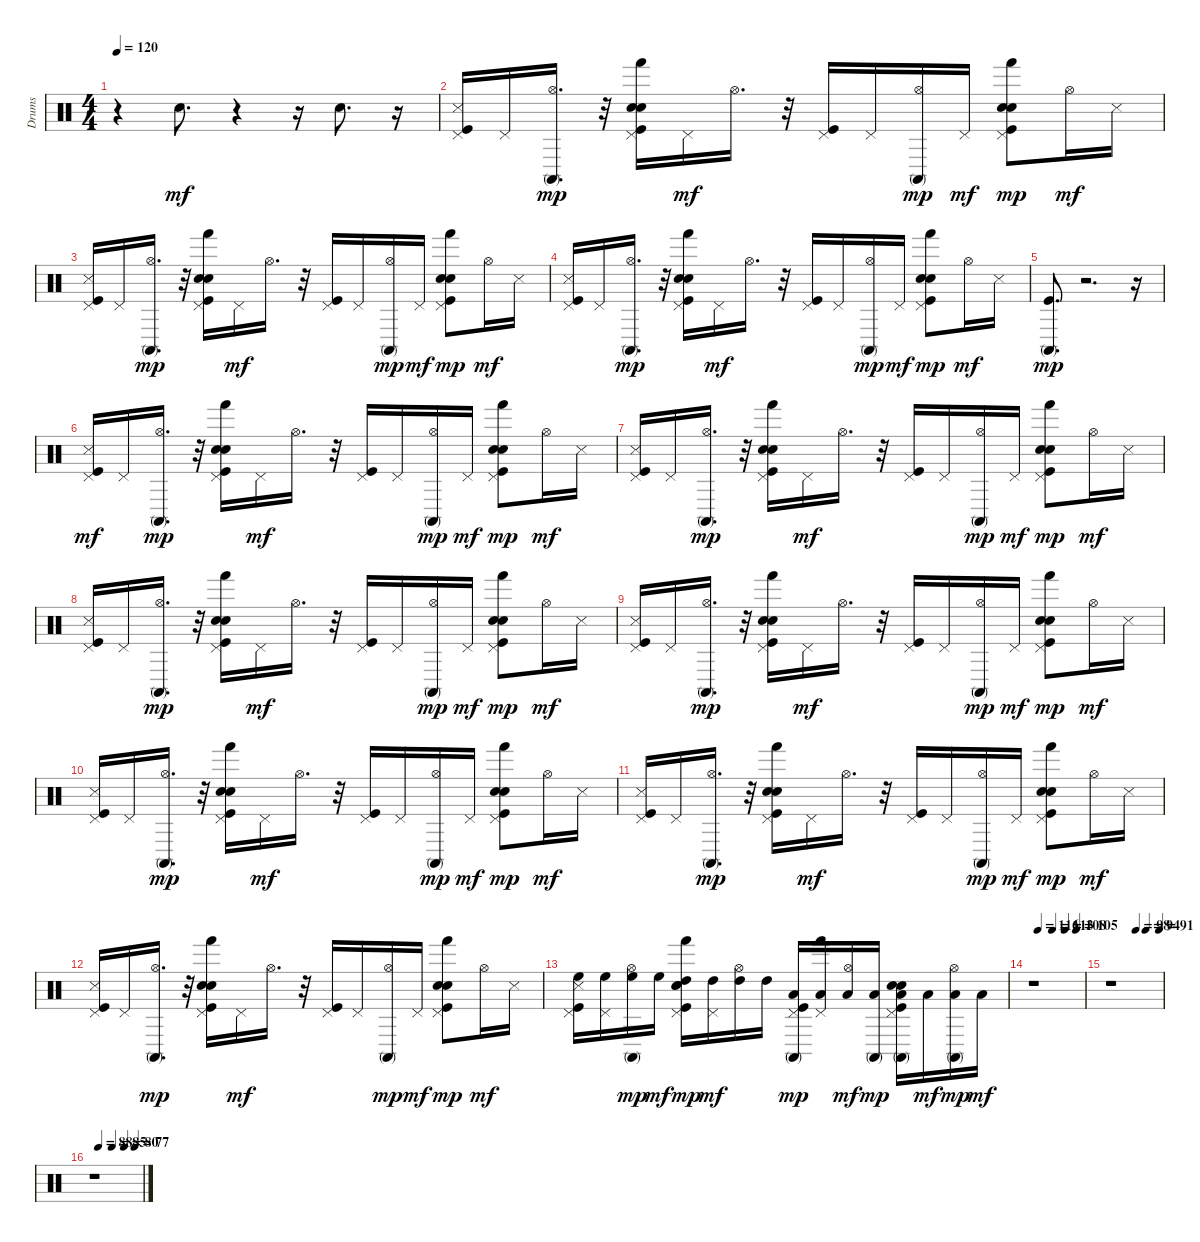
\track ("Drums" "Drums") {instrument percussion}
\staff {score}
\articulation defaults
\ts (4 4)
\tempo 120
\clef neutral
\ks c
r.4{dy mf} "Hand Clap (hit)".8{d} r.4 r.16 "Hand Clap (hit)".8{d} r.16 |
("Pedal Hi-Hat (hit)" "Snare (side stick) 3" "Kick (hit)").16 "Pedal Hi-Hat (hit)".16 ("Hi-Hat (open)" "Conga high (mute)").16{d dy mp} r.32 ("Pedal Hi-Hat (hit)" "Hand Clap (hit)" "Snare (hit) 2" "Kick (hit)" "Hand (hit)").16 "Pedal Hi-Hat (hit)".16{dy mf} "Hi-Hat (open)".16{d} r.32 ("Pedal Hi-Hat (hit)" "Kick (hit)").16 "Pedal Hi-Hat (hit)".16 ("Hi-Hat (open)" "Conga high (mute)").16{dy mp} "Pedal Hi-Hat (hit)".16{dy mf} ("Pedal Hi-Hat (hit)" "Hand Clap (hit)" "Snare (hit) 2" "Kick (hit)" "Hand (hit)").8{dy mp} "Hi-Hat (open)".16{dy mf} "Snare (side stick) 3".16 |
("Kick (hit)" "Pedal Hi-Hat (hit)" "Snare (side stick) 3").16 "Pedal Hi-Hat (hit)".16 ("Hi-Hat (open)" "Conga high (mute)").16{d dy mp} r.32 ("Pedal Hi-Hat (hit)" "Hand Clap (hit)" "Snare (hit) 2" "Kick (hit)" "Hand (hit)").16 "Pedal Hi-Hat (hit)".16{dy mf} "Hi-Hat (open)".16{d} r.32 ("Pedal Hi-Hat (hit)" "Kick (hit)").16 "Pedal Hi-Hat (hit)".16 ("Hi-Hat (open)" "Conga high (mute)").16{dy mp} "Pedal Hi-Hat (hit)".16{dy mf} ("Pedal Hi-Hat (hit)" "Hand Clap (hit)" "Snare (hit) 2" "Kick (hit)" "Hand (hit)").8{dy mp} "Hi-Hat (open)".16{dy mf} "Snare (side stick) 3".16 |
("Pedal Hi-Hat (hit)" "Snare (side stick) 3" "Kick (hit)").16 "Pedal Hi-Hat (hit)".16 ("Hi-Hat (open)" "Conga high (mute)").16{d dy mp} r.32 ("Pedal Hi-Hat (hit)" "Hand Clap (hit)" "Snare (hit) 2" "Kick (hit)" "Hand (hit)").16 "Pedal Hi-Hat (hit)".16{dy mf} "Hi-Hat (open)".16{d} r.32 ("Pedal Hi-Hat (hit)" "Kick (hit)").16 "Pedal Hi-Hat (hit)".16 ("Hi-Hat (open)" "Conga high (mute)").16{dy mp} "Pedal Hi-Hat (hit)".16{dy mf} ("Pedal Hi-Hat (hit)" "Hand Clap (hit)" "Snare (hit) 2" "Kick (hit)" "Hand (hit)").8{dy mp} "Hi-Hat (open)".16{dy mf} "Snare (side stick) 3".16 |
("Kick (hit)" "Conga high (mute)").8{d dy mp} r.2{d} r.16 |
("Kick (hit)" "Snare (side stick) 3" "Pedal Hi-Hat (hit)").16{dy mf} "Pedal Hi-Hat (hit)".16 ("Hi-Hat (open)" "Conga high (mute)").16{d dy mp} r.32 ("Kick (hit)" "Snare (hit) 2" "Hand Clap (hit)" "Pedal Hi-Hat (hit)" "Hand (hit)").16 "Pedal Hi-Hat (hit)".16{dy mf} "Hi-Hat (open)".16{d} r.32 ("Kick (hit)" "Pedal Hi-Hat (hit)").16 "Pedal Hi-Hat (hit)".16 ("Hi-Hat (open)" "Conga high (mute)").16{dy mp} "Pedal Hi-Hat (hit)".16{dy mf} ("Kick (hit)" "Snare (hit) 2" "Hand Clap (hit)" "Pedal Hi-Hat (hit)" "Hand (hit)").8{dy mp} "Hi-Hat (open)".16{dy mf} "Snare (side stick) 3".16 |
("Kick (hit)" "Snare (side stick) 3" "Pedal Hi-Hat (hit)").16 "Pedal Hi-Hat (hit)".16 ("Hi-Hat (open)" "Conga high (mute)").16{d dy mp} r.32 ("Kick (hit)" "Snare (hit) 2" "Hand Clap (hit)" "Pedal Hi-Hat (hit)" "Hand (hit)").16 "Pedal Hi-Hat (hit)".16{dy mf} "Hi-Hat (open)".16{d} r.32 ("Kick (hit)" "Pedal Hi-Hat (hit)").16 "Pedal Hi-Hat (hit)".16 ("Hi-Hat (open)" "Conga high (mute)").16{dy mp} "Pedal Hi-Hat (hit)".16{dy mf} ("Kick (hit)" "Snare (hit) 2" "Hand Clap (hit)" "Pedal Hi-Hat (hit)" "Hand (hit)").8{dy mp} "Hi-Hat (open)".16{dy mf} "Snare (side stick) 3".16 |
("Pedal Hi-Hat (hit)" "Snare (side stick) 3" "Kick (hit)").16 "Pedal Hi-Hat (hit)".16 ("Hi-Hat (open)" "Conga high (mute)").16{d dy mp} r.32 ("Pedal Hi-Hat (hit)" "Hand Clap (hit)" "Snare (hit) 2" "Kick (hit)" "Hand (hit)").16 "Pedal Hi-Hat (hit)".16{dy mf} "Hi-Hat (open)".16{d} r.32 ("Pedal Hi-Hat (hit)" "Kick (hit)").16 "Pedal Hi-Hat (hit)".16 ("Hi-Hat (open)" "Conga high (mute)").16{dy mp} "Pedal Hi-Hat (hit)".16{dy mf} ("Pedal Hi-Hat (hit)" "Hand Clap (hit)" "Snare (hit) 2" "Kick (hit)" "Hand (hit)").8{dy mp} "Hi-Hat (open)".16{dy mf} "Snare (side stick) 3".16 |
("Pedal Hi-Hat (hit)" "Snare (side stick) 3" "Kick (hit)").16 "Pedal Hi-Hat (hit)".16 ("Hi-Hat (open)" "Conga high (mute)").16{d dy mp} r.32 ("Pedal Hi-Hat (hit)" "Hand Clap (hit)" "Snare (hit) 2" "Kick (hit)" "Hand (hit)").16 "Pedal Hi-Hat (hit)".16{dy mf} "Hi-Hat (open)".16{d} r.32 ("Pedal Hi-Hat (hit)" "Kick (hit)").16 "Pedal Hi-Hat (hit)".16 ("Hi-Hat (open)" "Conga high (mute)").16{dy mp} "Pedal Hi-Hat (hit)".16{dy mf} ("Pedal Hi-Hat (hit)" "Hand Clap (hit)" "Snare (hit) 2" "Kick (hit)" "Hand (hit)").8{dy mp} "Hi-Hat (open)".16{dy mf} "Snare (side stick) 3".16 |
("Pedal Hi-Hat (hit)" "Snare (side stick) 3" "Kick (hit)").16 "Pedal Hi-Hat (hit)".16 ("Hi-Hat (open)" "Conga high (mute)").16{d dy mp} r.32 ("Pedal Hi-Hat (hit)" "Hand Clap (hit)" "Snare (hit) 2" "Kick (hit)" "Hand (hit)").16 "Pedal Hi-Hat (hit)".16{dy mf} "Hi-Hat (open)".16{d} r.32 ("Pedal Hi-Hat (hit)" "Kick (hit)").16 "Pedal Hi-Hat (hit)".16 ("Hi-Hat (open)" "Conga high (mute)").16{dy mp} "Pedal Hi-Hat (hit)".16{dy mf} ("Pedal Hi-Hat (hit)" "Hand Clap (hit)" "Snare (hit) 2" "Kick (hit)" "Hand (hit)").8{dy mp} "Hi-Hat (open)".16{dy mf} "Snare (side stick) 3".16 |
("Pedal Hi-Hat (hit)" "Snare (side stick) 3" "Kick (hit)").16 "Pedal Hi-Hat (hit)".16 ("Hi-Hat (open)" "Conga high (mute)").16{d dy mp} r.32 ("Pedal Hi-Hat (hit)" "Hand Clap (hit)" "Snare (hit) 2" "Kick (hit)" "Hand (hit)").16 "Pedal Hi-Hat (hit)".16{dy mf} "Hi-Hat (open)".16{d} r.32 ("Pedal Hi-Hat (hit)" "Kick (hit)").16 "Pedal Hi-Hat (hit)".16 ("Hi-Hat (open)" "Conga high (mute)").16{dy mp} "Pedal Hi-Hat (hit)".16{dy mf} ("Pedal Hi-Hat (hit)" "Hand Clap (hit)" "Snare (hit) 2" "Kick (hit)" "Hand (hit)").8{dy mp} "Hi-Hat (open)".16{dy mf} "Snare (side stick) 3".16 |
("Pedal Hi-Hat (hit)" "Snare (side stick) 3" "Kick (hit)").16 "Pedal Hi-Hat (hit)".16 ("Hi-Hat (open)" "Conga high (mute)").16{d dy mp} r.32 ("Pedal Hi-Hat (hit)" "Hand Clap (hit)" "Snare (hit) 2" "Kick (hit)" "Hand (hit)").16 "Pedal Hi-Hat (hit)".16{dy mf} "Hi-Hat (open)".16{d} r.32 ("Pedal Hi-Hat (hit)" "Kick (hit)").16 "Pedal Hi-Hat (hit)".16 ("Hi-Hat (open)" "Conga high (mute)").16{dy mp} "Pedal Hi-Hat (hit)".16{dy mf} ("Pedal Hi-Hat (hit)" "Hand Clap (hit)" "Snare (hit) 2" "Kick (hit)" "Hand (hit)").8{dy mp} "Hi-Hat (open)".16{dy mf} "Snare (side stick) 3".16 |
("Snare (side stick) 3" "Pedal Hi-Hat (hit)" "High Floor Tom (hit)" "Kick (hit)").16 ("Pedal Hi-Hat (hit)" "High Floor Tom (hit)").16 ("Hi-Hat (open)" "High Floor Tom (hit)" "Conga high (mute)").16{dy mp} "High Floor Tom (hit)".16{dy mf} ("Pedal Hi-Hat (hit)" "High Tom (hit)" "Snare (hit) 2" "Hand Clap (hit)" "Kick (hit)" "Hand (hit)").16{dy mp} ("Pedal Hi-Hat (hit)" "High Tom (hit)").16{dy mf} ("Hi-Hat (open)" "High Tom (hit)").16 "High Tom (hit)".16 ("Pedal Hi-Hat (hit)" "Low Tom (hit)" "Kick (hit)" "Conga high (mute)").16{dy mp} ("Pedal Hi-Hat (hit)" "Low Tom (hit)" "Hand (hit)").16 ("Hi-Hat (open)" "Low Tom (hit)").16{dy mf} ("Low Tom (hit)" "Conga high (mute)").16{dy mp} ("Pedal Hi-Hat (hit)" "Low Floor Tom (hit)" "Kick (hit)" "Hand Clap (hit)" "Snare (hit) 2" "Conga high (mute)").16 "Low Floor Tom (hit)".16{dy mf} ("Hi-Hat (open)" "Low Floor Tom (hit)" "Conga high (mute)").16{dy mp} "Low Floor Tom (hit)".16{dy mf} |
\tempo (116 0.10416666666666667)
\tempo (113 0.3854166666666667)
\tempo (108 0.6354166666666666)
\tempo (105 0.8541666666666666)
r.1 |
\tempo (98 0.5)
\tempo (94 0.6875)
\tempo (91 0.9479166666666666)
r.1 |
\tempo (88 0.10416666666666667)
\tempo (85 0.3854166666666667)
\tempo (80 0.6354166666666666)
\tempo (77 0.8541666666666666)
r.1
